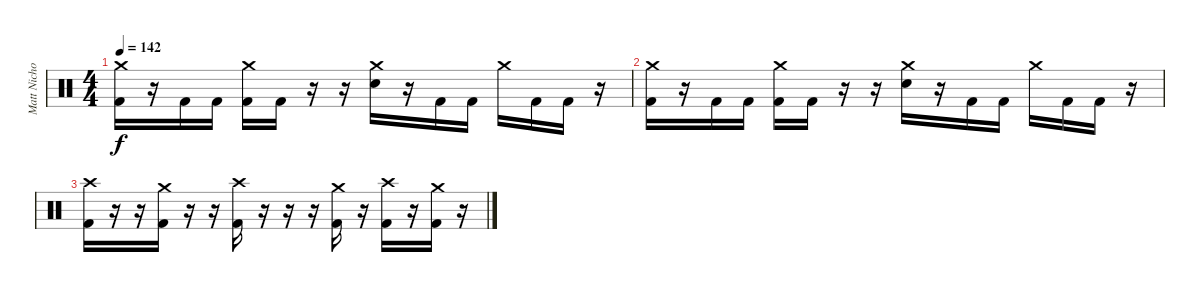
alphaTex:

\track ("Matt Nicholls" "Matt Nicho") {instrument percussion}
\staff {score}
\articulation defaults
\ts (4 4)
\tempo 142
\clef neutral
\ks c
("Crash medium (hit)" "Kick (hit) 2").16{dy f} r.16 "Kick (hit) 2".16 "Kick (hit) 2".16 ("Crash medium (hit)" "Kick (hit) 2").16 "Kick (hit) 2".16 r.16 r.16 ("Crash medium (hit)" "Electric Snare (hit)").16 r.16 "Kick (hit) 2".16 "Kick (hit) 2".16 "Crash medium (hit)".16 "Kick (hit) 2".16 "Kick (hit) 2".16 r.16 |
("Crash medium (hit)" "Kick (hit) 2").16 r.16 "Kick (hit) 2".16 "Kick (hit) 2".16 ("Crash medium (hit)" "Kick (hit) 2").16 "Kick (hit) 2".16 r.16 r.16 ("Crash medium (hit)" "Electric Snare (hit)").16 r.16 "Kick (hit) 2".16 "Kick (hit) 2".16 "Crash medium (hit)".16 "Kick (hit) 2".16 "Kick (hit) 2".16 r.16 |
("Crash high (hit)" "Kick (hit) 2").16 r.16 r.16 ("Crash medium (hit)" "Kick (hit) 2").16 r.16 r.16 ("Crash high (hit)" "Kick (hit) 2").16 r.16 r.16 r.16 ("Crash medium (hit)" "Kick (hit) 2").16 r.16 ("Crash high (hit)" "Kick (hit) 2").16 r.16 ("Crash medium (hit)" "Kick (hit) 2").16 r.16
